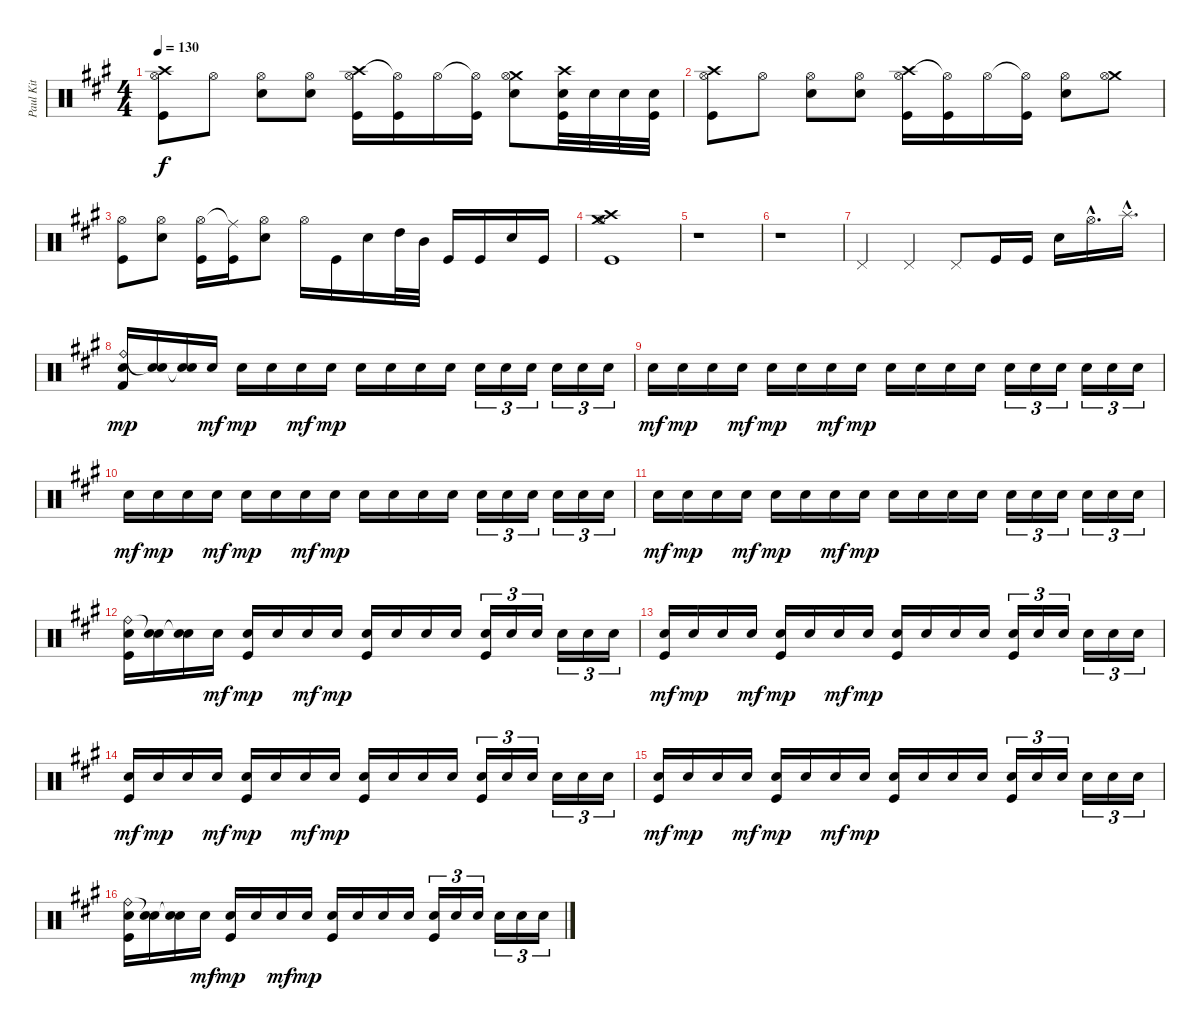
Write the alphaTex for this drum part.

\track ("Paul Kit" "Paul Kit") {instrument percussion}
\staff {score}
\articulation defaults
\ts (4 4)
\tempo 130
\clef neutral
\ks a
("Crash high (hit)" "Hi-Hat (open)" "Kick (hit)").8{dy f} "Hi-Hat (open)".8 ("Hi-Hat (open)" "Snare (hit) 2").8 ("Hi-Hat (open)" "Snare (hit) 2").8 ("Crash high (hit)" "Hi-Hat (open)" "Kick (hit)").16 ("Hi-Hat (open)"{t} "Kick (hit)").16 "Hi-Hat (open)".16 ("Hi-Hat (open)"{t} "Kick (hit)").16 ("Crash medium (hit)" "Hi-Hat (open)" "Snare (hit) 2").8 ("Crash high (hit)" "Snare (hit) 2" "Kick (hit)").32 "Snare (hit) 2".32 "Snare (hit) 2".32 ("Snare (hit) 2" "Kick (hit)").32 |
("Crash high (hit)" "Hi-Hat (open)" "Kick (hit)").8 "Hi-Hat (open)".8 ("Hi-Hat (open)" "Snare (hit) 2").8 ("Hi-Hat (open)" "Snare (hit) 2").8 ("Crash high (hit)" "Hi-Hat (open)" "Kick (hit)").16 ("Hi-Hat (open)"{t} "Kick (hit)").16 "Hi-Hat (open)".16 ("Hi-Hat (open)"{t} "Kick (hit)").16 ("Hi-Hat (open)" "Snare (hit) 2").8 ("Crash medium (hit)" "Hi-Hat (open)").8 |
("Hi-Hat (open)" "Kick (hit)").8 ("Hi-Hat (open)" "Snare (hit) 2").8 ("Hi-Hat (open)" "Kick (hit)").16 ("Ride (middle)"{t} "Kick (hit)").16 ("Hi-Hat (open)" "Snare (hit) 2").8 "Hi-Hat (open)".16 "Kick (hit)".16 "Snare (hit) 2".16 "High Tom (hit)".32 "Mid Tom (hit)".32 "Kick (hit)".16 "Kick (hit)".16 "Snare (hit) 2".16 "Kick (hit)".16 |
("Crash medium (hit)" "Crash high (hit)" "Hi-Hat (open)" "Kick (hit)").1 |
r.1 |
r.1 |
"Pedal Hi-Hat (hit)".4 "Pedal Hi-Hat (hit)".4 "Pedal Hi-Hat (hit)".8 "Kick (hit)".16 "Kick (hit)".16 "Snare (hit) 2".16 "Hi-Hat (open)"{hac}.16{d} "Splash (hit)"{hac}.16{d} |
("Ride (bell)" "Snare (hit) 2" "Kick (hit) 2").16{dy mp} ("Snare (hit)"{t} "Snare (hit) 2").16 ("Snare (hit)"{t} "Snare (hit) 2").16 "Electric Snare (hit)".16{dy mf} "Snare (hit) 2".16{dy mp} "Snare (hit) 2".16 "Electric Snare (hit)".16{dy mf} "Snare (hit) 2".16{dy mp} "Snare (hit) 2".16 "Snare (hit) 2".16 "Snare (hit) 2".16 "Snare (hit) 2".16 "Snare (hit) 2".16{tu (3 2)} "Snare (hit) 2".16{tu (3 2)} "Snare (hit) 2".16{tu (3 2)} "Snare (hit) 2".16{tu (3 2)} "Snare (hit) 2".16{tu (3 2)} "Snare (hit) 2".16{tu (3 2)} |
"Snare (hit) 2".16{dy mf} "Snare (hit) 2".16{dy mp} "Snare (hit) 2".16 "Electric Snare (hit)".16{dy mf} "Snare (hit) 2".16{dy mp} "Snare (hit) 2".16 "Electric Snare (hit)".16{dy mf} "Snare (hit) 2".16{dy mp} "Snare (hit) 2".16 "Snare (hit) 2".16 "Snare (hit) 2".16 "Snare (hit) 2".16 "Snare (hit) 2".16{tu (3 2)} "Snare (hit) 2".16{tu (3 2)} "Snare (hit) 2".16{tu (3 2)} "Snare (hit) 2".16{tu (3 2)} "Snare (hit) 2".16{tu (3 2)} "Snare (hit) 2".16{tu (3 2)} |
"Snare (hit) 2".16{dy mf} "Snare (hit) 2".16{dy mp} "Snare (hit) 2".16 "Electric Snare (hit)".16{dy mf} "Snare (hit) 2".16{dy mp} "Snare (hit) 2".16 "Electric Snare (hit)".16{dy mf} "Snare (hit) 2".16{dy mp} "Snare (hit) 2".16 "Snare (hit) 2".16 "Snare (hit) 2".16 "Snare (hit) 2".16 "Snare (hit) 2".16{tu (3 2)} "Snare (hit) 2".16{tu (3 2)} "Snare (hit) 2".16{tu (3 2)} "Snare (hit) 2".16{tu (3 2)} "Snare (hit) 2".16{tu (3 2)} "Snare (hit) 2".16{tu (3 2)} |
"Snare (hit) 2".16{dy mf} "Snare (hit) 2".16{dy mp} "Snare (hit) 2".16 "Electric Snare (hit)".16{dy mf} "Snare (hit) 2".16{dy mp} "Snare (hit) 2".16 "Electric Snare (hit)".16{dy mf} "Snare (hit) 2".16{dy mp} "Snare (hit) 2".16 "Snare (hit) 2".16 "Snare (hit) 2".16 "Snare (hit) 2".16 "Snare (hit) 2".16{tu (3 2)} "Snare (hit) 2".16{tu (3 2)} "Snare (hit) 2".16{tu (3 2)} "Snare (hit) 2".16{tu (3 2)} "Snare (hit) 2".16{tu (3 2)} "Snare (hit) 2".16{tu (3 2)} |
("Ride (bell)" "Snare (hit) 2" "Kick (hit)").16 ("Snare (hit)"{t} "Snare (hit) 2").16 ("Snare (hit)"{t} "Snare (hit) 2").16 "Electric Snare (hit)".16{dy mf} ("Snare (hit) 2" "Kick (hit)").16{dy mp} "Snare (hit) 2".16 "Electric Snare (hit)".16{dy mf} "Snare (hit) 2".16{dy mp} ("Snare (hit) 2" "Kick (hit)").16 "Snare (hit) 2".16 "Snare (hit) 2".16 "Snare (hit) 2".16 ("Snare (hit) 2" "Kick (hit)").16{tu (3 2)} "Snare (hit) 2".16{tu (3 2)} "Snare (hit) 2".16{tu (3 2)} "Snare (hit) 2".16{tu (3 2)} "Snare (hit) 2".16{tu (3 2)} "Snare (hit) 2".16{tu (3 2)} |
("Snare (hit) 2" "Kick (hit)").16{dy mf} "Snare (hit) 2".16{dy mp} "Snare (hit) 2".16 "Electric Snare (hit)".16{dy mf} ("Snare (hit) 2" "Kick (hit)").16{dy mp} "Snare (hit) 2".16 "Electric Snare (hit)".16{dy mf} "Snare (hit) 2".16{dy mp} ("Snare (hit) 2" "Kick (hit)").16 "Snare (hit) 2".16 "Snare (hit) 2".16 "Snare (hit) 2".16 ("Snare (hit) 2" "Kick (hit)").16{tu (3 2)} "Snare (hit) 2".16{tu (3 2)} "Snare (hit) 2".16{tu (3 2)} "Snare (hit) 2".16{tu (3 2)} "Snare (hit) 2".16{tu (3 2)} "Snare (hit) 2".16{tu (3 2)} |
("Snare (hit) 2" "Kick (hit)").16{dy mf} "Snare (hit) 2".16{dy mp} "Snare (hit) 2".16 "Electric Snare (hit)".16{dy mf} ("Snare (hit) 2" "Kick (hit)").16{dy mp} "Snare (hit) 2".16 "Electric Snare (hit)".16{dy mf} "Snare (hit) 2".16{dy mp} ("Snare (hit) 2" "Kick (hit)").16 "Snare (hit) 2".16 "Snare (hit) 2".16 "Snare (hit) 2".16 ("Snare (hit) 2" "Kick (hit)").16{tu (3 2)} "Snare (hit) 2".16{tu (3 2)} "Snare (hit) 2".16{tu (3 2)} "Snare (hit) 2".16{tu (3 2)} "Snare (hit) 2".16{tu (3 2)} "Snare (hit) 2".16{tu (3 2)} |
("Snare (hit) 2" "Kick (hit)").16{dy mf} "Snare (hit) 2".16{dy mp} "Snare (hit) 2".16 "Electric Snare (hit)".16{dy mf} ("Snare (hit) 2" "Kick (hit)").16{dy mp} "Snare (hit) 2".16 "Electric Snare (hit)".16{dy mf} "Snare (hit) 2".16{dy mp} ("Snare (hit) 2" "Kick (hit)").16 "Snare (hit) 2".16 "Snare (hit) 2".16 "Snare (hit) 2".16 ("Snare (hit) 2" "Kick (hit)").16{tu (3 2)} "Snare (hit) 2".16{tu (3 2)} "Snare (hit) 2".16{tu (3 2)} "Snare (hit) 2".16{tu (3 2)} "Snare (hit) 2".16{tu (3 2)} "Snare (hit) 2".16{tu (3 2)} |
("Ride (bell)" "Snare (hit) 2" "Kick (hit)").16 ("Snare (hit)"{t} "Snare (hit) 2").16 ("Snare (hit)"{t} "Snare (hit) 2").16 "Electric Snare (hit)".16{dy mf} ("Snare (hit) 2" "Kick (hit)").16{dy mp} "Snare (hit) 2".16 "Electric Snare (hit)".16{dy mf} "Snare (hit) 2".16{dy mp} ("Snare (hit) 2" "Kick (hit)").16 "Snare (hit) 2".16 "Snare (hit) 2".16 "Snare (hit) 2".16 ("Snare (hit) 2" "Kick (hit)").16{tu (3 2)} "Snare (hit) 2".16{tu (3 2)} "Snare (hit) 2".16{tu (3 2)} "Snare (hit) 2".16{tu (3 2)} "Snare (hit) 2".16{tu (3 2)} "Snare (hit) 2".16{tu (3 2)}
